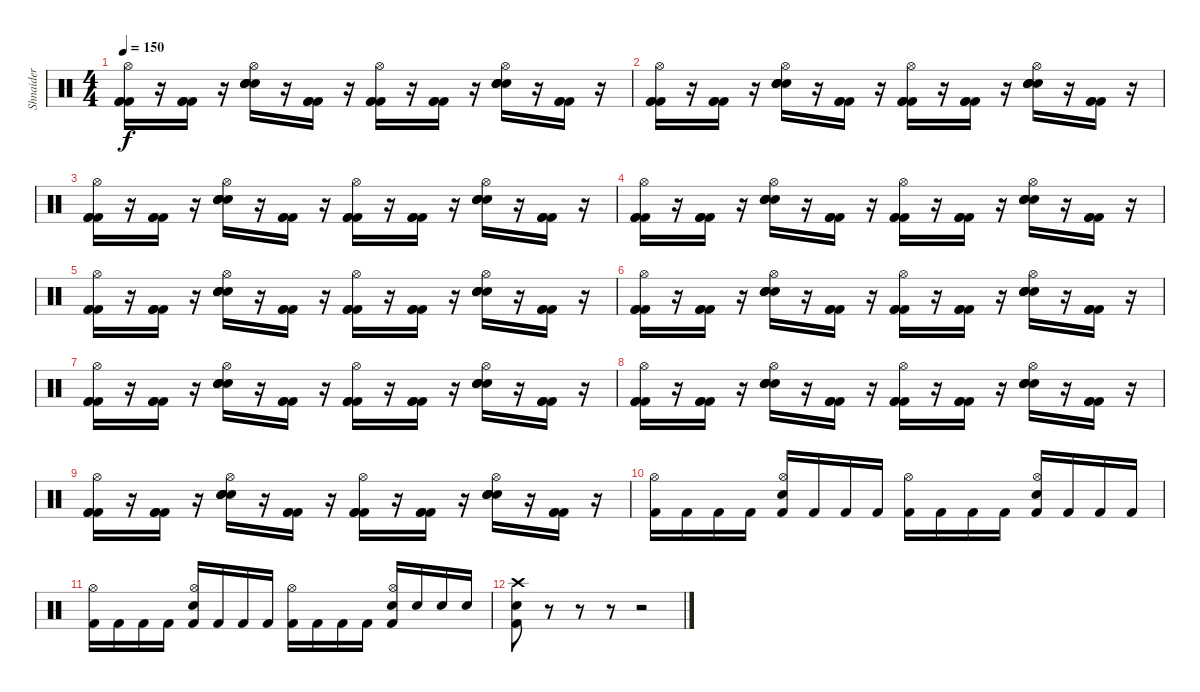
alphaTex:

\track ("Shnaider" "Shnaider") {instrument percussion}
\staff {score}
\articulation defaults
\ts (4 4)
\tempo 150
\clef neutral
\ks c
("Kick (hit) 2" "Kick (hit) 2" "Kick (hit) 2" "Hi-Hat (open)").16{dy f} r.16 ("Kick (hit) 2" "Kick (hit) 2" "Kick (hit) 2").16 r.16 ("Electric Snare (hit)" "Electric Snare (hit)" "Electric Snare (hit)" "Electric Snare (hit)" "Hi-Hat (open)").16 r.16 ("Kick (hit) 2" "Kick (hit) 2" "Kick (hit) 2").16 r.16 ("Kick (hit) 2" "Kick (hit) 2" "Kick (hit) 2" "Hi-Hat (open)").16 r.16 ("Kick (hit) 2" "Kick (hit) 2" "Kick (hit) 2").16 r.16 ("Electric Snare (hit)" "Electric Snare (hit)" "Electric Snare (hit)" "Electric Snare (hit)" "Hi-Hat (open)").16 r.16 ("Kick (hit) 2" "Kick (hit) 2" "Kick (hit) 2").16 r.16 |
("Kick (hit) 2" "Kick (hit) 2" "Kick (hit) 2" "Hi-Hat (open)").16 r.16 ("Kick (hit) 2" "Kick (hit) 2" "Kick (hit) 2").16 r.16 ("Electric Snare (hit)" "Electric Snare (hit)" "Electric Snare (hit)" "Electric Snare (hit)" "Hi-Hat (open)").16 r.16 ("Kick (hit) 2" "Kick (hit) 2" "Kick (hit) 2").16 r.16 ("Kick (hit) 2" "Kick (hit) 2" "Kick (hit) 2" "Hi-Hat (open)").16 r.16 ("Kick (hit) 2" "Kick (hit) 2" "Kick (hit) 2").16 r.16 ("Electric Snare (hit)" "Electric Snare (hit)" "Electric Snare (hit)" "Electric Snare (hit)" "Hi-Hat (open)").16 r.16 ("Kick (hit) 2" "Kick (hit) 2" "Kick (hit) 2").16 r.16 |
("Kick (hit) 2" "Kick (hit) 2" "Kick (hit) 2" "Hi-Hat (open)").16 r.16 ("Kick (hit) 2" "Kick (hit) 2" "Kick (hit) 2").16 r.16 ("Electric Snare (hit)" "Electric Snare (hit)" "Electric Snare (hit)" "Electric Snare (hit)" "Hi-Hat (open)").16 r.16 ("Kick (hit) 2" "Kick (hit) 2" "Kick (hit) 2").16 r.16 ("Kick (hit) 2" "Kick (hit) 2" "Kick (hit) 2" "Hi-Hat (open)").16 r.16 ("Kick (hit) 2" "Kick (hit) 2" "Kick (hit) 2").16 r.16 ("Electric Snare (hit)" "Electric Snare (hit)" "Electric Snare (hit)" "Electric Snare (hit)" "Hi-Hat (open)").16 r.16 ("Kick (hit) 2" "Kick (hit) 2" "Kick (hit) 2").16 r.16 |
("Kick (hit) 2" "Kick (hit) 2" "Kick (hit) 2" "Hi-Hat (open)").16 r.16 ("Kick (hit) 2" "Kick (hit) 2" "Kick (hit) 2").16 r.16 ("Electric Snare (hit)" "Electric Snare (hit)" "Electric Snare (hit)" "Electric Snare (hit)" "Hi-Hat (open)").16 r.16 ("Kick (hit) 2" "Kick (hit) 2" "Kick (hit) 2").16 r.16 ("Kick (hit) 2" "Kick (hit) 2" "Kick (hit) 2" "Hi-Hat (open)").16 r.16 ("Kick (hit) 2" "Kick (hit) 2" "Kick (hit) 2").16 r.16 ("Electric Snare (hit)" "Electric Snare (hit)" "Electric Snare (hit)" "Electric Snare (hit)" "Hi-Hat (open)").16 r.16 ("Kick (hit) 2" "Kick (hit) 2" "Kick (hit) 2").16 r.16 |
("Kick (hit) 2" "Kick (hit) 2" "Kick (hit) 2" "Hi-Hat (open)").16 r.16 ("Kick (hit) 2" "Kick (hit) 2" "Kick (hit) 2").16 r.16 ("Electric Snare (hit)" "Electric Snare (hit)" "Electric Snare (hit)" "Electric Snare (hit)" "Hi-Hat (open)").16 r.16 ("Kick (hit) 2" "Kick (hit) 2" "Kick (hit) 2").16 r.16 ("Kick (hit) 2" "Kick (hit) 2" "Kick (hit) 2" "Hi-Hat (open)").16 r.16 ("Kick (hit) 2" "Kick (hit) 2" "Kick (hit) 2").16 r.16 ("Electric Snare (hit)" "Electric Snare (hit)" "Electric Snare (hit)" "Electric Snare (hit)" "Hi-Hat (open)").16 r.16 ("Kick (hit) 2" "Kick (hit) 2" "Kick (hit) 2").16 r.16 |
("Kick (hit) 2" "Kick (hit) 2" "Kick (hit) 2" "Hi-Hat (open)").16 r.16 ("Kick (hit) 2" "Kick (hit) 2" "Kick (hit) 2").16 r.16 ("Electric Snare (hit)" "Electric Snare (hit)" "Electric Snare (hit)" "Electric Snare (hit)" "Hi-Hat (open)").16 r.16 ("Kick (hit) 2" "Kick (hit) 2" "Kick (hit) 2").16 r.16 ("Kick (hit) 2" "Kick (hit) 2" "Kick (hit) 2" "Hi-Hat (open)").16 r.16 ("Kick (hit) 2" "Kick (hit) 2" "Kick (hit) 2").16 r.16 ("Electric Snare (hit)" "Electric Snare (hit)" "Electric Snare (hit)" "Electric Snare (hit)" "Hi-Hat (open)").16 r.16 ("Kick (hit) 2" "Kick (hit) 2" "Kick (hit) 2").16 r.16 |
("Kick (hit) 2" "Kick (hit) 2" "Kick (hit) 2" "Hi-Hat (open)").16 r.16 ("Kick (hit) 2" "Kick (hit) 2" "Kick (hit) 2").16 r.16 ("Electric Snare (hit)" "Electric Snare (hit)" "Electric Snare (hit)" "Electric Snare (hit)" "Hi-Hat (open)").16 r.16 ("Kick (hit) 2" "Kick (hit) 2" "Kick (hit) 2").16 r.16 ("Kick (hit) 2" "Kick (hit) 2" "Kick (hit) 2" "Hi-Hat (open)").16 r.16 ("Kick (hit) 2" "Kick (hit) 2" "Kick (hit) 2").16 r.16 ("Electric Snare (hit)" "Electric Snare (hit)" "Electric Snare (hit)" "Electric Snare (hit)" "Hi-Hat (open)").16 r.16 ("Kick (hit) 2" "Kick (hit) 2" "Kick (hit) 2").16 r.16 |
("Kick (hit) 2" "Kick (hit) 2" "Kick (hit) 2" "Hi-Hat (open)").16 r.16 ("Kick (hit) 2" "Kick (hit) 2" "Kick (hit) 2").16 r.16 ("Electric Snare (hit)" "Electric Snare (hit)" "Electric Snare (hit)" "Electric Snare (hit)" "Hi-Hat (open)").16 r.16 ("Kick (hit) 2" "Kick (hit) 2" "Kick (hit) 2").16 r.16 ("Kick (hit) 2" "Kick (hit) 2" "Kick (hit) 2" "Hi-Hat (open)").16 r.16 ("Kick (hit) 2" "Kick (hit) 2" "Kick (hit) 2").16 r.16 ("Electric Snare (hit)" "Electric Snare (hit)" "Electric Snare (hit)" "Electric Snare (hit)" "Hi-Hat (open)").16 r.16 ("Kick (hit) 2" "Kick (hit) 2" "Kick (hit) 2").16 r.16 |
("Kick (hit) 2" "Kick (hit) 2" "Kick (hit) 2" "Hi-Hat (open)").16 r.16 ("Kick (hit) 2" "Kick (hit) 2" "Kick (hit) 2").16 r.16 ("Electric Snare (hit)" "Electric Snare (hit)" "Electric Snare (hit)" "Electric Snare (hit)" "Hi-Hat (open)").16 r.16 ("Kick (hit) 2" "Kick (hit) 2" "Kick (hit) 2").16 r.16 ("Kick (hit) 2" "Kick (hit) 2" "Kick (hit) 2" "Hi-Hat (open)").16 r.16 ("Kick (hit) 2" "Kick (hit) 2" "Kick (hit) 2").16 r.16 ("Electric Snare (hit)" "Electric Snare (hit)" "Electric Snare (hit)" "Electric Snare (hit)" "Hi-Hat (open)").16 r.16 ("Kick (hit) 2" "Kick (hit) 2" "Kick (hit) 2").16 r.16 |
("Kick (hit) 2" "Hi-Hat (open)").16 "Kick (hit) 2".16 "Kick (hit) 2".16 "Kick (hit) 2".16 ("Kick (hit) 2" "Electric Snare (hit)" "Hi-Hat (open)").16 "Kick (hit) 2".16 "Kick (hit) 2".16 "Kick (hit) 2".16 ("Kick (hit) 2" "Hi-Hat (open)").16 "Kick (hit) 2".16 "Kick (hit) 2".16 "Kick (hit) 2".16 ("Kick (hit) 2" "Electric Snare (hit)" "Hi-Hat (open)").16 "Kick (hit) 2".16 "Kick (hit) 2".16 "Kick (hit) 2".16 |
("Kick (hit) 2" "Hi-Hat (open)").16 "Kick (hit) 2".16 "Kick (hit) 2".16 "Kick (hit) 2".16 ("Kick (hit) 2" "Electric Snare (hit)" "Hi-Hat (open)").16 "Kick (hit) 2".16 "Kick (hit) 2".16 "Kick (hit) 2".16 ("Kick (hit) 2" "Hi-Hat (open)").16 "Kick (hit) 2".16 "Kick (hit) 2".16 "Kick (hit) 2".16 ("Kick (hit) 2" "Electric Snare (hit)" "Hi-Hat (open)").16 "Electric Snare (hit)".16 "Electric Snare (hit)".16 "Electric Snare (hit)".16 |
("Kick (hit) 2" "Electric Snare (hit)" "Crash high (hit)").8 r.8 r.8 r.8 r.2
